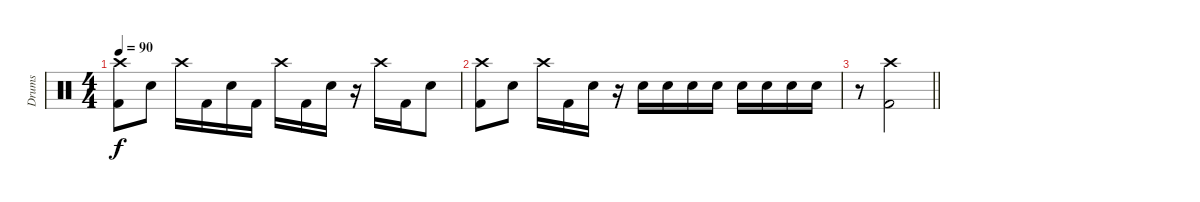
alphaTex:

\track ("Drums" "Drums") {instrument percussion}
\staff {score}
\articulation defaults
\ts (4 4)
\tempo 90
\clef neutral
\ks c
("Crash high (hit)" "Kick (hit) 2").8{dy f} "Electric Snare (hit)".8 "Crash high (hit)".16 "Kick (hit) 2".16 "Electric Snare (hit)".16 "Kick (hit) 2".16 "Crash high (hit)".16 "Kick (hit) 2".16 "Electric Snare (hit)".16 r.16 "Crash high (hit)".16 "Kick (hit) 2".16 "Electric Snare (hit)".8 |
("Crash high (hit)" "Kick (hit) 2").8 "Electric Snare (hit)".8 "Crash high (hit)".16 "Kick (hit) 2".16 "Electric Snare (hit)".16 r.16 "Electric Snare (hit)".16 "Electric Snare (hit)".16 "Electric Snare (hit)".16 "Electric Snare (hit)".16 "Electric Snare (hit)".16 "Electric Snare (hit)".16 "Electric Snare (hit)".16 "Electric Snare (hit)".16 |
\barLineRight lightlight
r.8 ("Crash high (hit)" "Kick (hit) 2").2
